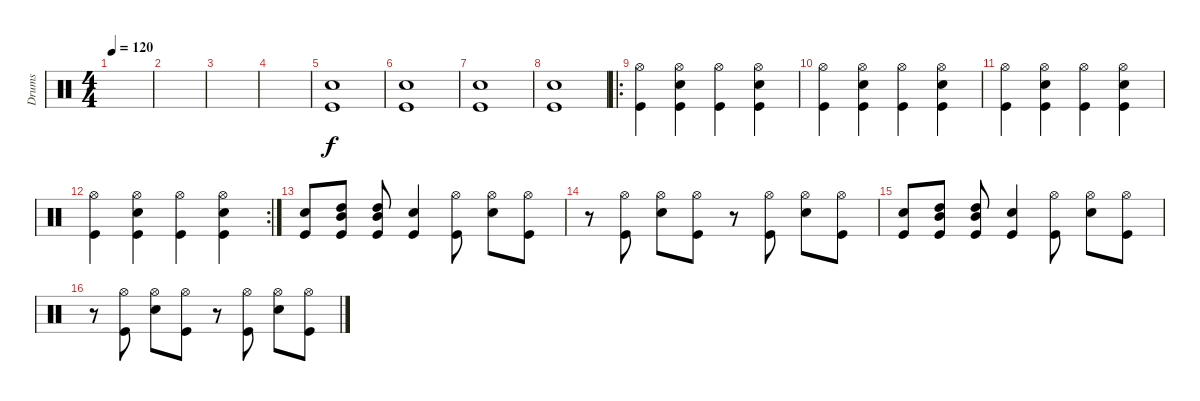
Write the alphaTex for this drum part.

\track ("Drums" "Drums") {instrument percussion}
\staff {score}
\articulation defaults
\ts (4 4)
\tempo 120
\clef neutral
\ks c
|
|
|
|
("Snare (hit) 2" "Kick (hit)").1 |
("Snare (hit) 2" "Kick (hit)").1 |
("Snare (hit) 2" "Kick (hit)").1 |
("Snare (hit) 2" "Kick (hit)").1 |
\ro
("Hi-Hat (open)" "Kick (hit)").4 ("Snare (hit) 2" "Kick (hit)" "Hi-Hat (open)").4 ("Hi-Hat (open)" "Kick (hit)").4 ("Snare (hit) 2" "Kick (hit)" "Hi-Hat (open)").4 |
("Hi-Hat (open)" "Kick (hit)").4 ("Snare (hit) 2" "Kick (hit)" "Hi-Hat (open)").4 ("Hi-Hat (open)" "Kick (hit)").4 ("Snare (hit) 2" "Kick (hit)" "Hi-Hat (open)").4 |
("Hi-Hat (open)" "Kick (hit)").4 ("Snare (hit) 2" "Kick (hit)" "Hi-Hat (open)").4 ("Hi-Hat (open)" "Kick (hit)").4 ("Snare (hit) 2" "Kick (hit)" "Hi-Hat (open)").4 |
\rc 2
("Hi-Hat (open)" "Kick (hit)").4 ("Snare (hit) 2" "Kick (hit)" "Hi-Hat (open)").4 ("Hi-Hat (open)" "Kick (hit)").4 ("Snare (hit) 2" "Kick (hit)" "Hi-Hat (open)").4 |
("Kick (hit)" "Snare (hit) 2").8 ("High Tom (hit)" "Mid Tom (hit)" "Kick (hit)").8 ("High Tom (hit)" "Mid Tom (hit)" "Kick (hit)").8 ("Snare (hit) 2" "Kick (hit)").4 ("Kick (hit)" "Hi-Hat (open)").8 ("Snare (hit) 2" "Hi-Hat (open)").8 ("Kick (hit)" "Hi-Hat (open)").8 |
r.8 ("Kick (hit)" "Hi-Hat (open)").8 ("Snare (hit) 2" "Hi-Hat (open)").8 ("Kick (hit)" "Hi-Hat (open)").8 r.8 ("Kick (hit)" "Hi-Hat (open)").8 ("Snare (hit) 2" "Hi-Hat (open)").8 ("Kick (hit)" "Hi-Hat (open)").8 |
("Kick (hit)" "Snare (hit) 2").8 ("High Tom (hit)" "Mid Tom (hit)" "Kick (hit)").8 ("High Tom (hit)" "Mid Tom (hit)" "Kick (hit)").8 ("Snare (hit) 2" "Kick (hit)").4 ("Kick (hit)" "Hi-Hat (open)").8 ("Snare (hit) 2" "Hi-Hat (open)").8 ("Kick (hit)" "Hi-Hat (open)").8 |
r.8 ("Kick (hit)" "Hi-Hat (open)").8 ("Snare (hit) 2" "Hi-Hat (open)").8 ("Kick (hit)" "Hi-Hat (open)").8 r.8 ("Kick (hit)" "Hi-Hat (open)").8 ("Snare (hit) 2" "Hi-Hat (open)").8 ("Kick (hit)" "Hi-Hat (open)").8
